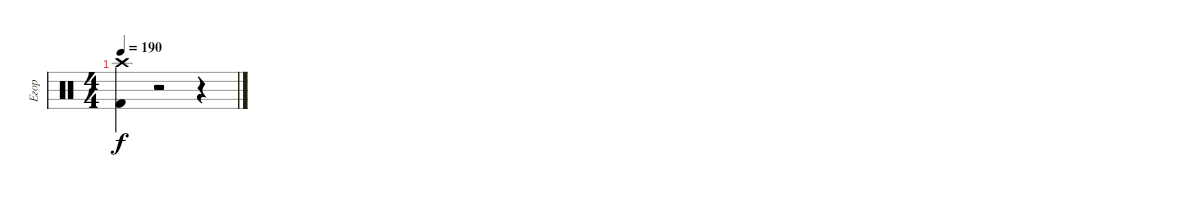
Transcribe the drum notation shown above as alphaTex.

\track ("Егор" "Егор") {instrument percussion}
\staff {score}
\articulation defaults
\ts (4 4)
\tempo 190
\clef neutral
\ks c
("Crash high (hit)" "Kick (hit) 2").4{dy f} r.2 r.4
